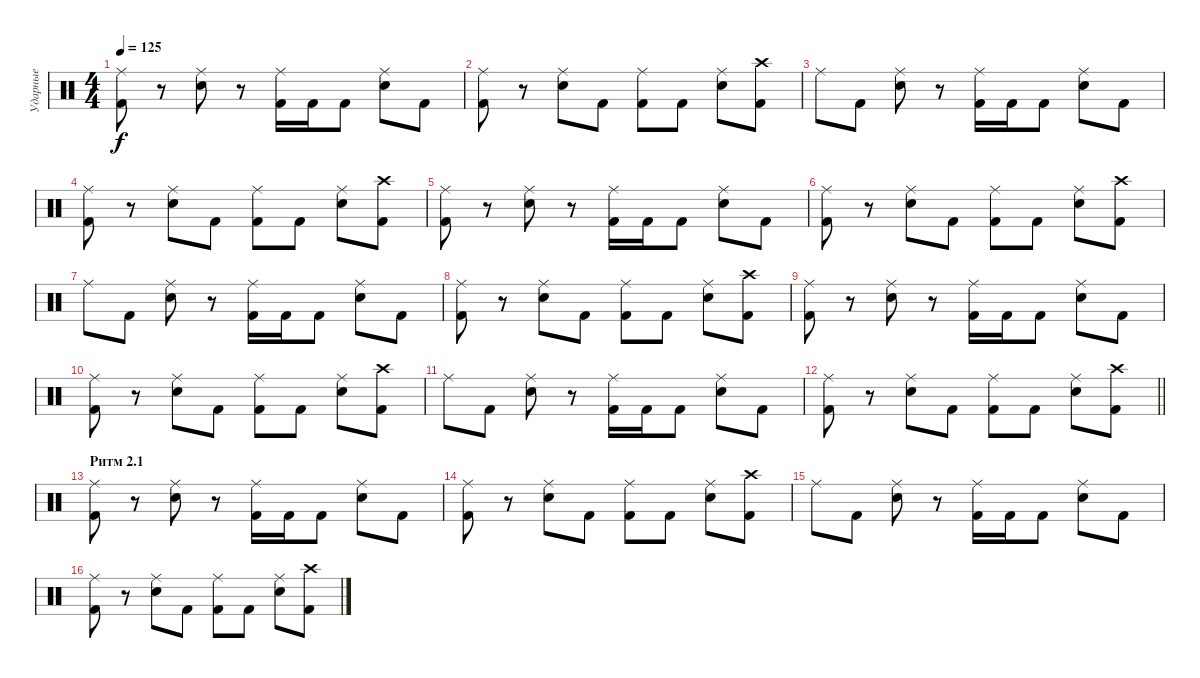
\track ("Ударные" "Ударные") {instrument percussion}
\staff {score}
\articulation defaults
\ts (4 4)
\tempo 125
\clef neutral
\ks c
("Ride (middle)" "Kick (hit) 2").8{dy f} r.8 ("Ride (middle)" "Snare (hit) 2").8 r.8 ("Ride (middle)" "Kick (hit) 2").16 "Kick (hit) 2".16 "Kick (hit) 2".8 ("Ride (middle)" "Snare (hit) 2").8 "Kick (hit) 2".8 |
("Ride (middle)" "Kick (hit) 2").8 r.8 ("Ride (middle)" "Snare (hit) 2").8 "Kick (hit) 2".8 ("Ride (middle)" "Kick (hit) 2").8 "Kick (hit) 2".8 ("Ride (middle)" "Snare (hit) 2").8 ("Crash high (hit)" "Kick (hit) 2").8 |
"Ride (middle)".8 "Kick (hit) 2".8 ("Ride (middle)" "Snare (hit) 2").8 r.8 ("Ride (middle)" "Kick (hit) 2").16 "Kick (hit) 2".16 "Kick (hit) 2".8 ("Ride (middle)" "Snare (hit) 2").8 "Kick (hit) 2".8 |
("Ride (middle)" "Kick (hit) 2").8 r.8 ("Ride (middle)" "Snare (hit) 2").8 "Kick (hit) 2".8 ("Ride (middle)" "Kick (hit) 2").8 "Kick (hit) 2".8 ("Ride (middle)" "Snare (hit) 2").8 ("Crash high (hit)" "Kick (hit) 2").8 |
("Ride (middle)" "Kick (hit) 2").8 r.8 ("Ride (middle)" "Snare (hit) 2").8 r.8 ("Ride (middle)" "Kick (hit) 2").16 "Kick (hit) 2".16 "Kick (hit) 2".8 ("Ride (middle)" "Snare (hit) 2").8 "Kick (hit) 2".8 |
("Ride (middle)" "Kick (hit) 2").8 r.8 ("Ride (middle)" "Snare (hit) 2").8 "Kick (hit) 2".8 ("Ride (middle)" "Kick (hit) 2").8 "Kick (hit) 2".8 ("Ride (middle)" "Snare (hit) 2").8 ("Crash high (hit)" "Kick (hit) 2").8 |
"Ride (middle)".8 "Kick (hit) 2".8 ("Ride (middle)" "Snare (hit) 2").8 r.8 ("Ride (middle)" "Kick (hit) 2").16 "Kick (hit) 2".16 "Kick (hit) 2".8 ("Ride (middle)" "Snare (hit) 2").8 "Kick (hit) 2".8 |
("Ride (middle)" "Kick (hit) 2").8 r.8 ("Ride (middle)" "Snare (hit) 2").8 "Kick (hit) 2".8 ("Ride (middle)" "Kick (hit) 2").8 "Kick (hit) 2".8 ("Ride (middle)" "Snare (hit) 2").8 ("Crash high (hit)" "Kick (hit) 2").8 |
("Ride (middle)" "Kick (hit) 2").8 r.8 ("Ride (middle)" "Snare (hit) 2").8 r.8 ("Ride (middle)" "Kick (hit) 2").16 "Kick (hit) 2".16 "Kick (hit) 2".8 ("Ride (middle)" "Snare (hit) 2").8 "Kick (hit) 2".8 |
("Ride (middle)" "Kick (hit) 2").8 r.8 ("Ride (middle)" "Snare (hit) 2").8 "Kick (hit) 2".8 ("Ride (middle)" "Kick (hit) 2").8 "Kick (hit) 2".8 ("Ride (middle)" "Snare (hit) 2").8 ("Crash high (hit)" "Kick (hit) 2").8 |
"Ride (middle)".8 "Kick (hit) 2".8 ("Ride (middle)" "Snare (hit) 2").8 r.8 ("Ride (middle)" "Kick (hit) 2").16 "Kick (hit) 2".16 "Kick (hit) 2".8 ("Ride (middle)" "Snare (hit) 2").8 "Kick (hit) 2".8 |
\barLineRight lightlight
("Ride (middle)" "Kick (hit) 2").8 r.8 ("Ride (middle)" "Snare (hit) 2").8 "Kick (hit) 2".8 ("Ride (middle)" "Kick (hit) 2").8 "Kick (hit) 2".8 ("Ride (middle)" "Snare (hit) 2").8 ("Crash high (hit)" "Kick (hit) 2").8 |
\section ("" "Ритм 2.1")
("Ride (middle)" "Kick (hit) 2").8 r.8 ("Ride (middle)" "Snare (hit) 2").8 r.8 ("Ride (middle)" "Kick (hit) 2").16 "Kick (hit) 2".16 "Kick (hit) 2".8 ("Ride (middle)" "Snare (hit) 2").8 "Kick (hit) 2".8 |
("Ride (middle)" "Kick (hit) 2").8 r.8 ("Ride (middle)" "Snare (hit) 2").8 "Kick (hit) 2".8 ("Ride (middle)" "Kick (hit) 2").8 "Kick (hit) 2".8 ("Ride (middle)" "Snare (hit) 2").8 ("Crash high (hit)" "Kick (hit) 2").8 |
"Ride (middle)".8 "Kick (hit) 2".8 ("Ride (middle)" "Snare (hit) 2").8 r.8 ("Ride (middle)" "Kick (hit) 2").16 "Kick (hit) 2".16 "Kick (hit) 2".8 ("Ride (middle)" "Snare (hit) 2").8 "Kick (hit) 2".8 |
("Ride (middle)" "Kick (hit) 2").8 r.8 ("Ride (middle)" "Snare (hit) 2").8 "Kick (hit) 2".8 ("Ride (middle)" "Kick (hit) 2").8 "Kick (hit) 2".8 ("Ride (middle)" "Snare (hit) 2").8 ("Crash high (hit)" "Kick (hit) 2").8
